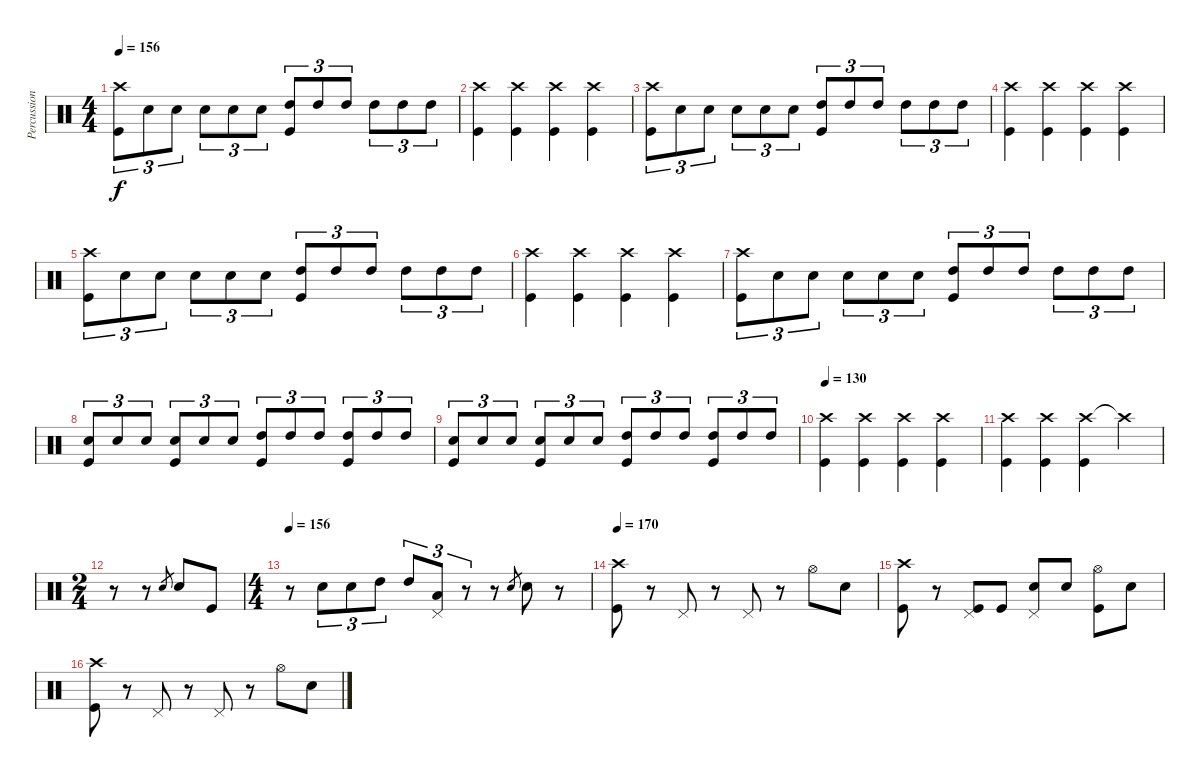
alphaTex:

\track ("Percussion" "Percussion") {instrument percussion}
\staff {score}
\articulation defaults
\ts (4 4)
\tempo 156
\clef neutral
\ks c
("Crash high (hit)" "Kick (hit)").8{tu (3 2) dy f} "Snare (hit) 2".8{tu (3 2)} "Snare (hit) 2".8{tu (3 2)} "Snare (hit) 2".8{tu (3 2)} "Snare (hit) 2".8{tu (3 2)} "Snare (hit) 2".8{tu (3 2)} ("High Tom (hit)" "Kick (hit)").8{tu (3 2)} "High Tom (hit)".8{tu (3 2)} "High Tom (hit)".8{tu (3 2)} "High Tom (hit)".8{tu (3 2)} "High Tom (hit)".8{tu (3 2)} "High Tom (hit)".8{tu (3 2)} |
("Crash high (hit)" "Kick (hit)").4 ("Crash high (hit)" "Kick (hit)").4 ("Crash high (hit)" "Kick (hit)").4 ("Crash high (hit)" "Kick (hit)").4 |
("Crash high (hit)" "Kick (hit)").8{tu (3 2)} "Snare (hit) 2".8{tu (3 2)} "Snare (hit) 2".8{tu (3 2)} "Snare (hit) 2".8{tu (3 2)} "Snare (hit) 2".8{tu (3 2)} "Snare (hit) 2".8{tu (3 2)} ("High Tom (hit)" "Kick (hit)").8{tu (3 2)} "High Tom (hit)".8{tu (3 2)} "High Tom (hit)".8{tu (3 2)} "High Tom (hit)".8{tu (3 2)} "High Tom (hit)".8{tu (3 2)} "High Tom (hit)".8{tu (3 2)} |
("Crash high (hit)" "Kick (hit)").4 ("Crash high (hit)" "Kick (hit)").4 ("Crash high (hit)" "Kick (hit)").4 ("Crash high (hit)" "Kick (hit)").4 |
("Crash high (hit)" "Kick (hit)").8{tu (3 2)} "Snare (hit) 2".8{tu (3 2)} "Snare (hit) 2".8{tu (3 2)} "Snare (hit) 2".8{tu (3 2)} "Snare (hit) 2".8{tu (3 2)} "Snare (hit) 2".8{tu (3 2)} ("High Tom (hit)" "Kick (hit)").8{tu (3 2)} "High Tom (hit)".8{tu (3 2)} "High Tom (hit)".8{tu (3 2)} "High Tom (hit)".8{tu (3 2)} "High Tom (hit)".8{tu (3 2)} "High Tom (hit)".8{tu (3 2)} |
("Crash high (hit)" "Kick (hit)").4 ("Crash high (hit)" "Kick (hit)").4 ("Crash high (hit)" "Kick (hit)").4 ("Crash high (hit)" "Kick (hit)").4 |
("Crash high (hit)" "Kick (hit)").8{tu (3 2)} "Snare (hit) 2".8{tu (3 2)} "Snare (hit) 2".8{tu (3 2)} "Snare (hit) 2".8{tu (3 2)} "Snare (hit) 2".8{tu (3 2)} "Snare (hit) 2".8{tu (3 2)} ("High Tom (hit)" "Kick (hit)").8{tu (3 2)} "High Tom (hit)".8{tu (3 2)} "High Tom (hit)".8{tu (3 2)} "High Tom (hit)".8{tu (3 2)} "High Tom (hit)".8{tu (3 2)} "High Tom (hit)".8{tu (3 2)} |
("Snare (hit) 2" "Kick (hit)").8{tu (3 2)} "Snare (hit) 2".8{tu (3 2)} "Snare (hit) 2".8{tu (3 2)} ("Snare (hit) 2" "Kick (hit)").8{tu (3 2)} "Snare (hit) 2".8{tu (3 2)} "Snare (hit) 2".8{tu (3 2)} ("High Tom (hit)" "Kick (hit)").8{tu (3 2)} "High Tom (hit)".8{tu (3 2)} "High Tom (hit)".8{tu (3 2)} ("High Tom (hit)" "Kick (hit)").8{tu (3 2)} "High Tom (hit)".8{tu (3 2)} "High Tom (hit)".8{tu (3 2)} |
("Snare (hit) 2" "Kick (hit)").8{tu (3 2)} "Snare (hit) 2".8{tu (3 2)} "Snare (hit) 2".8{tu (3 2)} ("Snare (hit) 2" "Kick (hit)").8{tu (3 2)} "Snare (hit) 2".8{tu (3 2)} "Snare (hit) 2".8{tu (3 2)} ("High Tom (hit)" "Kick (hit)").8{tu (3 2)} "High Tom (hit)".8{tu (3 2)} "High Tom (hit)".8{tu (3 2)} ("High Tom (hit)" "Kick (hit)").8{tu (3 2)} "High Tom (hit)".8{tu (3 2)} "High Tom (hit)".8{tu (3 2)} |
\tempo 130
("Crash high (hit)" "Kick (hit)").4 ("Crash high (hit)" "Kick (hit)").4 ("Crash high (hit)" "Kick (hit)").4 ("Crash high (hit)" "Kick (hit)").4 |
("Crash high (hit)" "Kick (hit)").4 ("Crash high (hit)" "Kick (hit)").4 ("Crash high (hit)" "Kick (hit)").4 "Crash high (hit)"{t}.4 |
\ts (2 4)
r.8 r.8 "Snare (hit) 2".8{gr} "Snare (hit) 2".8 "Kick (hit)".8 |
\ts (4 4)
\tempo 156
r.8 "Snare (hit) 2".8{tu (3 2)} "Snare (hit) 2".8{tu (3 2)} "High Tom (hit)".8{tu (3 2)} "High Tom (hit)".8{tu (3 2)} ("Low Tom (hit)" "Pedal Hi-Hat (hit)").8{tu (3 2)} r.8{tu (3 2)} r.8 "Snare (hit) 2".8{gr} "Snare (hit) 2".8 r.8 |
\tempo 170
("Crash high (hit)" "Kick (hit)").8 r.8 "Pedal Hi-Hat (hit)".8 r.8 "Pedal Hi-Hat (hit)".8 r.8 "Hi-Hat (open)".8 "Snare (hit) 2".8 |
("Crash high (hit)" "Kick (hit)").8 r.8 ("Pedal Hi-Hat (hit)" "Kick (hit)").8 "Kick (hit)".8 ("Snare (hit) 2" "Pedal Hi-Hat (hit)").8 "Snare (hit) 2".8 ("Hi-Hat (open)" "Kick (hit)").8 "Snare (hit) 2".8 |
("Crash high (hit)" "Kick (hit)").8 r.8 "Pedal Hi-Hat (hit)".8 r.8 "Pedal Hi-Hat (hit)".8 r.8 "Hi-Hat (open)".8 "Snare (hit) 2".8
